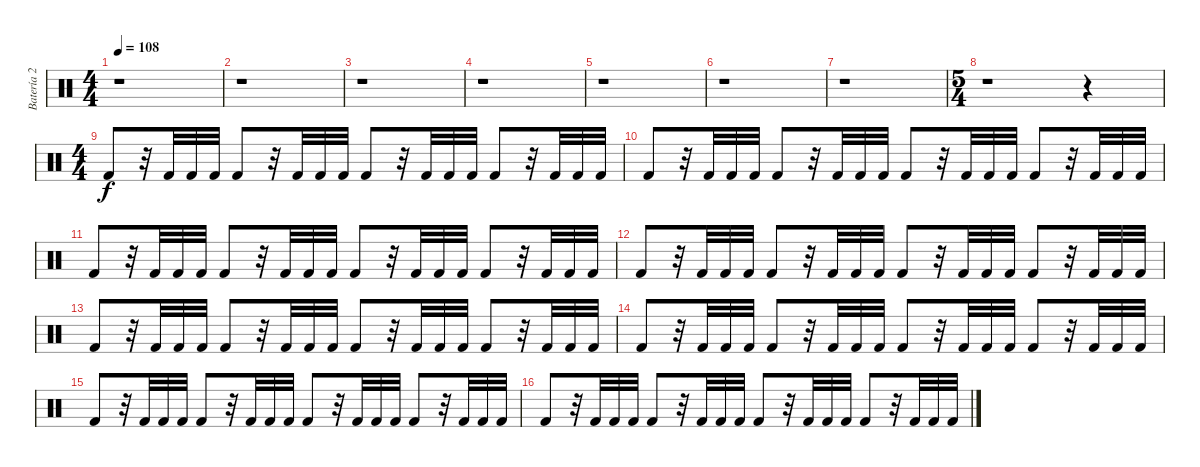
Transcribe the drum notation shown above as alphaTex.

\track ("Batería 2" "Batería 2") {instrument percussion}
\staff {score}
\articulation defaults
\ts (4 4)
\tempo 108
\clef neutral
\ks c
r.1{dy f} |
r.1 |
r.1 |
r.1 |
r.1 |
r.1 |
r.1 |
\ts (5 4)
r.1 r.4 |
\ts (4 4)
"Kick (hit) 2".8 r.32 "Kick (hit) 2".32 "Kick (hit) 2".32 "Kick (hit) 2".32 "Kick (hit) 2".8 r.32 "Kick (hit) 2".32 "Kick (hit) 2".32 "Kick (hit) 2".32 "Kick (hit) 2".8 r.32 "Kick (hit) 2".32 "Kick (hit) 2".32 "Kick (hit) 2".32 "Kick (hit) 2".8 r.32 "Kick (hit) 2".32 "Kick (hit) 2".32 "Kick (hit) 2".32 |
"Kick (hit) 2".8 r.32 "Kick (hit) 2".32 "Kick (hit) 2".32 "Kick (hit) 2".32 "Kick (hit) 2".8 r.32 "Kick (hit) 2".32 "Kick (hit) 2".32 "Kick (hit) 2".32 "Kick (hit) 2".8 r.32 "Kick (hit) 2".32 "Kick (hit) 2".32 "Kick (hit) 2".32 "Kick (hit) 2".8 r.32 "Kick (hit) 2".32 "Kick (hit) 2".32 "Kick (hit) 2".32 |
"Kick (hit) 2".8 r.32 "Kick (hit) 2".32 "Kick (hit) 2".32 "Kick (hit) 2".32 "Kick (hit) 2".8 r.32 "Kick (hit) 2".32 "Kick (hit) 2".32 "Kick (hit) 2".32 "Kick (hit) 2".8 r.32 "Kick (hit) 2".32 "Kick (hit) 2".32 "Kick (hit) 2".32 "Kick (hit) 2".8 r.32 "Kick (hit) 2".32 "Kick (hit) 2".32 "Kick (hit) 2".32 |
"Kick (hit) 2".8 r.32 "Kick (hit) 2".32 "Kick (hit) 2".32 "Kick (hit) 2".32 "Kick (hit) 2".8 r.32 "Kick (hit) 2".32 "Kick (hit) 2".32 "Kick (hit) 2".32 "Kick (hit) 2".8 r.32 "Kick (hit) 2".32 "Kick (hit) 2".32 "Kick (hit) 2".32 "Kick (hit) 2".8 r.32 "Kick (hit) 2".32 "Kick (hit) 2".32 "Kick (hit) 2".32 |
"Kick (hit) 2".8 r.32 "Kick (hit) 2".32 "Kick (hit) 2".32 "Kick (hit) 2".32 "Kick (hit) 2".8 r.32 "Kick (hit) 2".32 "Kick (hit) 2".32 "Kick (hit) 2".32 "Kick (hit) 2".8 r.32 "Kick (hit) 2".32 "Kick (hit) 2".32 "Kick (hit) 2".32 "Kick (hit) 2".8 r.32 "Kick (hit) 2".32 "Kick (hit) 2".32 "Kick (hit) 2".32 |
"Kick (hit) 2".8 r.32 "Kick (hit) 2".32 "Kick (hit) 2".32 "Kick (hit) 2".32 "Kick (hit) 2".8 r.32 "Kick (hit) 2".32 "Kick (hit) 2".32 "Kick (hit) 2".32 "Kick (hit) 2".8 r.32 "Kick (hit) 2".32 "Kick (hit) 2".32 "Kick (hit) 2".32 "Kick (hit) 2".8 r.32 "Kick (hit) 2".32 "Kick (hit) 2".32 "Kick (hit) 2".32 |
"Kick (hit) 2".8 r.32 "Kick (hit) 2".32 "Kick (hit) 2".32 "Kick (hit) 2".32 "Kick (hit) 2".8 r.32 "Kick (hit) 2".32 "Kick (hit) 2".32 "Kick (hit) 2".32 "Kick (hit) 2".8 r.32 "Kick (hit) 2".32 "Kick (hit) 2".32 "Kick (hit) 2".32 "Kick (hit) 2".8 r.32 "Kick (hit) 2".32 "Kick (hit) 2".32 "Kick (hit) 2".32 |
"Kick (hit) 2".8 r.32 "Kick (hit) 2".32 "Kick (hit) 2".32 "Kick (hit) 2".32 "Kick (hit) 2".8 r.32 "Kick (hit) 2".32 "Kick (hit) 2".32 "Kick (hit) 2".32 "Kick (hit) 2".8 r.32 "Kick (hit) 2".32 "Kick (hit) 2".32 "Kick (hit) 2".32 "Kick (hit) 2".8 r.32 "Kick (hit) 2".32 "Kick (hit) 2".32 "Kick (hit) 2".32
